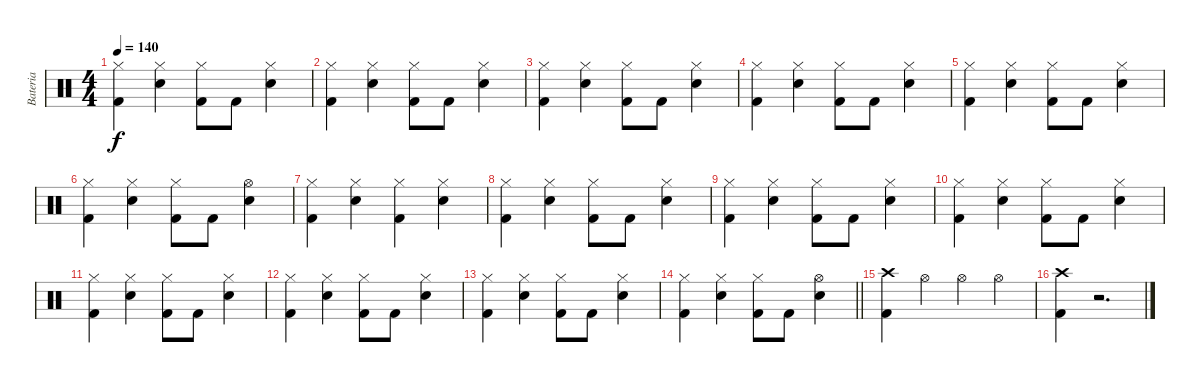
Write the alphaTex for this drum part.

\track ("Bateria" "Bateria") {instrument percussion}
\staff {score}
\articulation defaults
\ts (4 4)
\tempo 140
\clef neutral
\ks c
("Hi-Hat (closed)" "Kick (hit) 2").4{dy f} ("Hi-Hat (closed)" "Electric Snare (hit)").4 ("Hi-Hat (closed)" "Kick (hit) 2").8 "Kick (hit) 2".8 ("Hi-Hat (closed)" "Electric Snare (hit)").4 |
("Hi-Hat (closed)" "Kick (hit) 2").4 ("Hi-Hat (closed)" "Electric Snare (hit)").4 ("Hi-Hat (closed)" "Kick (hit) 2").8 "Kick (hit) 2".8 ("Hi-Hat (closed)" "Electric Snare (hit)").4 |
("Hi-Hat (closed)" "Kick (hit) 2").4 ("Hi-Hat (closed)" "Electric Snare (hit)").4 ("Hi-Hat (closed)" "Kick (hit) 2").8 "Kick (hit) 2".8 ("Hi-Hat (closed)" "Electric Snare (hit)").4 |
("Hi-Hat (closed)" "Kick (hit) 2").4 ("Hi-Hat (closed)" "Electric Snare (hit)").4 ("Hi-Hat (closed)" "Kick (hit) 2").8 "Kick (hit) 2".8 ("Hi-Hat (closed)" "Electric Snare (hit)").4 |
("Hi-Hat (closed)" "Kick (hit) 2").4 ("Hi-Hat (closed)" "Electric Snare (hit)").4 ("Hi-Hat (closed)" "Kick (hit) 2").8 "Kick (hit) 2".8 ("Hi-Hat (closed)" "Electric Snare (hit)").4 |
("Hi-Hat (closed)" "Kick (hit) 2").4 ("Hi-Hat (closed)" "Electric Snare (hit)").4 ("Hi-Hat (closed)" "Kick (hit) 2").8 "Kick (hit) 2".8 ("Hi-Hat (open)" "Electric Snare (hit)").4 |
("Hi-Hat (closed)" "Kick (hit) 2").4 ("Hi-Hat (closed)" "Electric Snare (hit)").4 ("Hi-Hat (closed)" "Kick (hit) 2").4 ("Hi-Hat (closed)" "Electric Snare (hit)").4 |
("Hi-Hat (closed)" "Kick (hit) 2").4 ("Hi-Hat (closed)" "Electric Snare (hit)").4 ("Hi-Hat (closed)" "Kick (hit) 2").8 "Kick (hit) 2".8 ("Hi-Hat (closed)" "Electric Snare (hit)").4 |
("Hi-Hat (closed)" "Kick (hit) 2").4 ("Hi-Hat (closed)" "Electric Snare (hit)").4 ("Hi-Hat (closed)" "Kick (hit) 2").8 "Kick (hit) 2".8 ("Hi-Hat (closed)" "Electric Snare (hit)").4 |
("Hi-Hat (closed)" "Kick (hit) 2").4 ("Hi-Hat (closed)" "Electric Snare (hit)").4 ("Hi-Hat (closed)" "Kick (hit) 2").8 "Kick (hit) 2".8 ("Hi-Hat (closed)" "Electric Snare (hit)").4 |
("Hi-Hat (closed)" "Kick (hit) 2").4 ("Hi-Hat (closed)" "Electric Snare (hit)").4 ("Hi-Hat (closed)" "Kick (hit) 2").8 "Kick (hit) 2".8 ("Hi-Hat (closed)" "Electric Snare (hit)").4 |
("Hi-Hat (closed)" "Kick (hit) 2").4 ("Hi-Hat (closed)" "Electric Snare (hit)").4 ("Hi-Hat (closed)" "Kick (hit) 2").8 "Kick (hit) 2".8 ("Hi-Hat (closed)" "Electric Snare (hit)").4 |
("Hi-Hat (closed)" "Kick (hit) 2").4 ("Hi-Hat (closed)" "Electric Snare (hit)").4 ("Hi-Hat (closed)" "Kick (hit) 2").8 "Kick (hit) 2".8 ("Hi-Hat (closed)" "Electric Snare (hit)").4 |
\barLineRight lightlight
("Hi-Hat (closed)" "Kick (hit) 2").4 ("Hi-Hat (closed)" "Electric Snare (hit)").4 ("Hi-Hat (closed)" "Kick (hit) 2").8 "Kick (hit) 2".8 ("Hi-Hat (open)" "Electric Snare (hit)").4 |
("Crash high (hit)" "Kick (hit) 2").4 "Hi-Hat (open)".4 "Hi-Hat (open)".4 "Hi-Hat (open)".4 |
("Crash high (hit)" "Kick (hit) 2").4 r.2{d}
